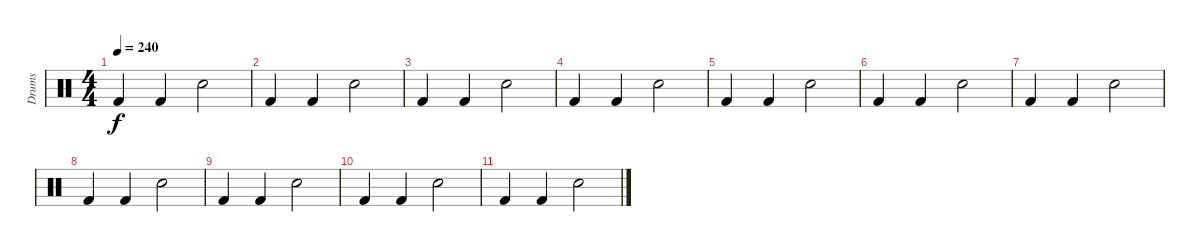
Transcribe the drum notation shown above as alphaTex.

\track ("Drums" "Drums") {instrument percussion}
\staff {score}
\articulation defaults
\ts (4 4)
\tempo 240
\clef neutral
\ks c "Kick (hit) 2".4{dy f} "Kick (hit) 2".4 "Snare (hit) 2".2
|
"Kick (hit) 2".4 "Kick (hit) 2".4 "Snare (hit) 2".2 |
"Kick (hit) 2".4 "Kick (hit) 2".4 "Snare (hit) 2".2 |
"Kick (hit) 2".4 "Kick (hit) 2".4 "Snare (hit) 2".2 |
"Kick (hit) 2".4 "Kick (hit) 2".4 "Snare (hit) 2".2 |
"Kick (hit) 2".4 "Kick (hit) 2".4 "Snare (hit) 2".2 |
"Kick (hit) 2".4 "Kick (hit) 2".4 "Snare (hit) 2".2 |
"Kick (hit) 2".4 "Kick (hit) 2".4 "Snare (hit) 2".2 |
"Kick (hit) 2".4 "Kick (hit) 2".4 "Snare (hit) 2".2 |
"Kick (hit) 2".4 "Kick (hit) 2".4 "Snare (hit) 2".2 |
"Kick (hit) 2".4 "Kick (hit) 2".4 "Snare (hit) 2".2
